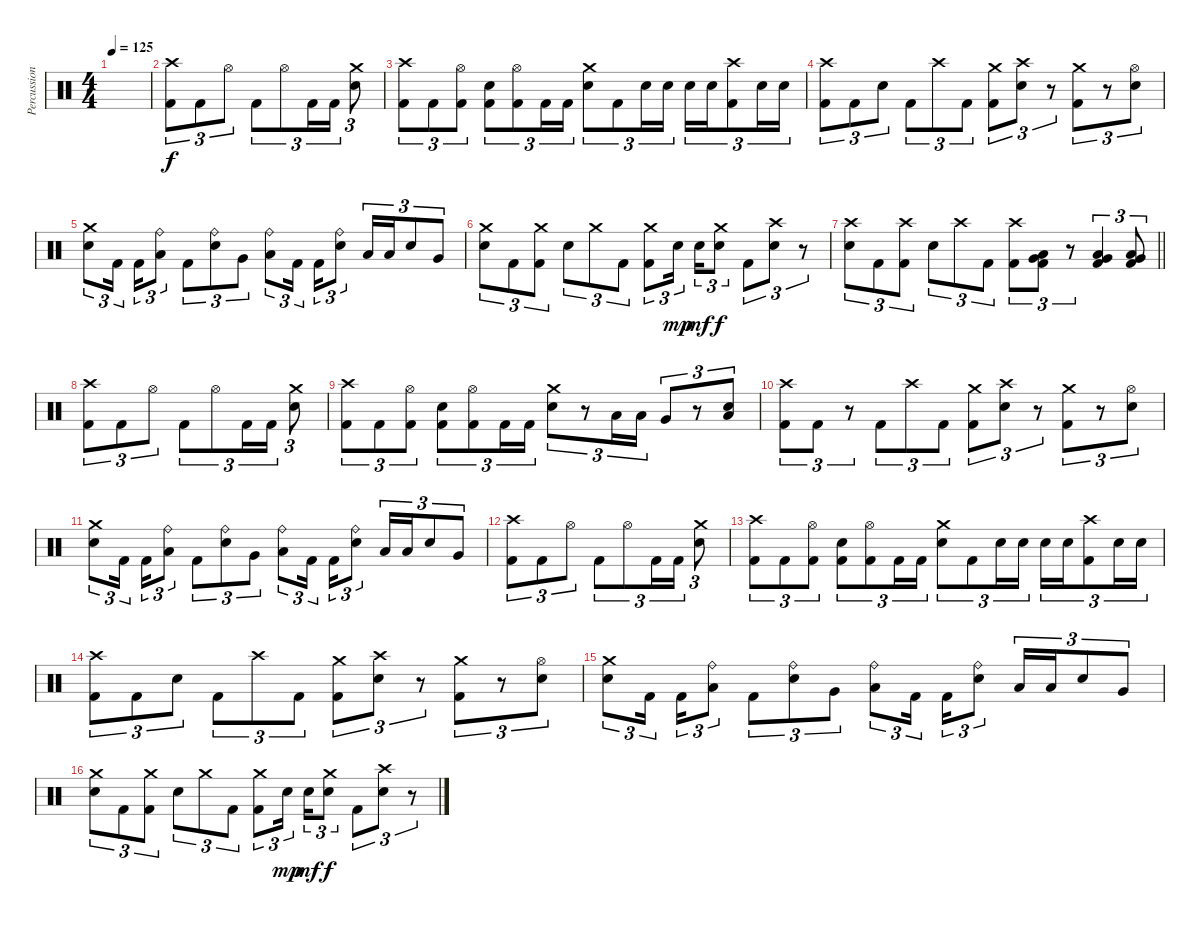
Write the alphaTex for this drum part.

\track ("Percussion" "Percussion") {instrument percussion}
\staff {score}
\articulation defaults
\ts (4 4)
\tempo 125
\clef neutral
\ks c
|
("Crash high (hit)" "Kick (hit) 2").8{tu (3 2)} "Kick (hit) 2".8{tu (3 2)} "Hi-Hat (open)".8{tu (3 2)} "Kick (hit) 2".8{tu (3 2)} "Hi-Hat (open)".8{tu (3 2)} "Kick (hit) 2".16{tu (3 2)} "Kick (hit) 2".16{tu (3 2)} ("Crash medium (hit)" "Electric Snare (hit)").8{tu (3 2)} |
("Crash high (hit)" "Kick (hit) 2").8{tu (3 2)} "Kick (hit) 2".8{tu (3 2)} ("Hi-Hat (open)" "Kick (hit) 2").8{tu (3 2)} ("Electric Snare (hit)" "Kick (hit) 2").8{tu (3 2)} ("Hi-Hat (open)" "Kick (hit) 2").8{tu (3 2)} "Kick (hit) 2".16{tu (3 2)} "Kick (hit) 2".16{tu (3 2)} ("Crash medium (hit)" "Electric Snare (hit)").8{tu (3 2)} "Kick (hit) 2".8{tu (3 2)} "Electric Snare (hit)".16{tu (3 2)} "Electric Snare (hit)".16{tu (3 2)} "Electric Snare (hit)".16{tu (3 2)} "Electric Snare (hit)".16{tu (3 2)} ("Crash high (hit)" "Kick (hit) 2").8{tu (3 2)} "Electric Snare (hit)".16{tu (3 2)} "Electric Snare (hit)".16{tu (3 2)} |
("Crash high (hit)" "Kick (hit) 2").8{tu (3 2)} "Kick (hit) 2".8{tu (3 2)} "Electric Snare (hit)".8{tu (3 2)} "Kick (hit) 2".8{tu (3 2)} "Crash high (hit)".8{tu (3 2)} "Kick (hit) 2".8{tu (3 2)} ("Crash medium (hit)" "Kick (hit) 2").8{tu (3 2)} ("Crash high (hit)" "Electric Snare (hit)").8{tu (3 2)} r.8{tu (3 2)} ("Crash medium (hit)" "Kick (hit) 2").8{tu (3 2)} r.8{tu (3 2)} ("Hi-Hat (open)" "Electric Snare (hit)").8{tu (3 2)} |
("Crash medium (hit)" "Electric Snare (hit)").8{tu (3 2)} "Kick (hit) 2".16{tu (3 2) beam splitsecondary} "Kick (hit) 2".16{tu (3 2)} ("Ride (bell)" "Low Tom (hit)").8{tu (3 2)} "Kick (hit) 2".8{tu (3 2)} ("Ride (bell)" "Electric Snare (hit)").8{tu (3 2)} "Very Low Tom (hit)".8{tu (3 2)} ("Ride (bell)" "Low Floor Tom (hit)").8{tu (3 2)} "Kick (hit) 2".16{tu (3 2) beam splitsecondary} "Kick (hit) 2".16{tu (3 2)} ("Ride (bell)" "Electric Snare (hit)").8{tu (3 2)} "Low Floor Tom (hit)".16{tu (3 2)} "Low Floor Tom (hit)".16{tu (3 2)} "Electric Snare (hit)".8{tu (3 2)} "Very Low Tom (hit)".8{tu (3 2)} |
("Crash medium (hit)" "Electric Snare (hit)").8{tu (3 2)} "Kick (hit) 2".8{tu (3 2)} ("Crash medium (hit)" "Kick (hit) 2").8{tu (3 2)} "Electric Snare (hit)".8{tu (3 2)} "Crash medium (hit)".8{tu (3 2)} "Kick (hit) 2".8{tu (3 2)} ("Crash medium (hit)" "Kick (hit) 2").8{tu (3 2)} "Electric Snare (hit)".16{tu (3 2) dy mp beam splitsecondary} "Electric Snare (hit)".16{tu (3 2) dy mf} ("Crash medium (hit)" "Electric Snare (hit)").8{tu (3 2) dy f} "Kick (hit) 2".8{tu (3 2)} ("Crash high (hit)" "Electric Snare (hit)").8{tu (3 2)} r.8{tu (3 2)} |
\barLineRight lightlight
("Crash high (hit)" "Electric Snare (hit)").8{tu (3 2)} "Kick (hit) 2".8{tu (3 2)} ("Crash high (hit)" "Kick (hit) 2").8{tu (3 2)} "Electric Snare (hit)".8{tu (3 2)} "Crash high (hit)".8{tu (3 2)} "Kick (hit) 2".8{tu (3 2)} ("Crash high (hit)" "Kick (hit) 2").8{tu (3 2)} ("Very Low Tom (hit)" "Low Floor Tom (hit)" "Kick (hit) 2").8{tu (3 2)} r.8{tu (3 2)} ("Very Low Tom (hit)" "Low Floor Tom (hit)" "Kick (hit) 2").4{tu (3 2)} ("Very Low Tom (hit)" "Low Floor Tom (hit)" "Kick (hit) 2").8{tu (3 2)} |
("Crash high (hit)" "Kick (hit) 2").8{tu (3 2)} "Kick (hit) 2".8{tu (3 2)} "Hi-Hat (open)".8{tu (3 2)} "Kick (hit) 2".8{tu (3 2)} "Hi-Hat (open)".8{tu (3 2)} "Kick (hit) 2".16{tu (3 2)} "Kick (hit) 2".16{tu (3 2)} ("Crash medium (hit)" "Electric Snare (hit)").8{tu (3 2)} |
("Crash high (hit)" "Kick (hit) 2").8{tu (3 2)} "Kick (hit) 2".8{tu (3 2)} ("Hi-Hat (open)" "Kick (hit) 2").8{tu (3 2)} ("Electric Snare (hit)" "Kick (hit) 2").8{tu (3 2)} ("Hi-Hat (open)" "Kick (hit) 2").8{tu (3 2)} "Kick (hit) 2".16{tu (3 2)} "Kick (hit) 2".16{tu (3 2)} ("Crash medium (hit)" "Electric Snare (hit)").8{tu (3 2)} r.8{tu (3 2)} "Low Tom (hit)".16{tu (3 2)} "Low Tom (hit)".16{tu (3 2)} "Very Low Tom (hit)".8{tu (3 2)} r.8{tu (3 2)} ("Electric Snare (hit)" "Low Floor Tom (hit)").8{tu (3 2)} |
("Crash high (hit)" "Kick (hit) 2").8{tu (3 2)} "Kick (hit) 2".8{tu (3 2)} r.8{tu (3 2)} "Kick (hit) 2".8{tu (3 2)} "Crash high (hit)".8{tu (3 2)} "Kick (hit) 2".8{tu (3 2)} ("Crash medium (hit)" "Kick (hit) 2").8{tu (3 2)} ("Crash high (hit)" "Electric Snare (hit)").8{tu (3 2)} r.8{tu (3 2)} ("Crash medium (hit)" "Kick (hit) 2").8{tu (3 2)} r.8{tu (3 2)} ("Hi-Hat (open)" "Electric Snare (hit)").8{tu (3 2)} |
("Crash medium (hit)" "Electric Snare (hit)").8{tu (3 2)} "Kick (hit) 2".16{tu (3 2) beam splitsecondary} "Kick (hit) 2".16{tu (3 2)} ("Ride (bell)" "Low Tom (hit)").8{tu (3 2)} "Kick (hit) 2".8{tu (3 2)} ("Ride (bell)" "Electric Snare (hit)").8{tu (3 2)} "Very Low Tom (hit)".8{tu (3 2)} ("Ride (bell)" "Low Floor Tom (hit)").8{tu (3 2)} "Kick (hit) 2".16{tu (3 2) beam splitsecondary} "Kick (hit) 2".16{tu (3 2)} ("Ride (bell)" "Electric Snare (hit)").8{tu (3 2)} "Low Floor Tom (hit)".16{tu (3 2)} "Low Floor Tom (hit)".16{tu (3 2)} "Electric Snare (hit)".8{tu (3 2)} "Very Low Tom (hit)".8{tu (3 2)} |
("Crash high (hit)" "Kick (hit) 2").8{tu (3 2)} "Kick (hit) 2".8{tu (3 2)} "Hi-Hat (open)".8{tu (3 2)} "Kick (hit) 2".8{tu (3 2)} "Hi-Hat (open)".8{tu (3 2)} "Kick (hit) 2".16{tu (3 2)} "Kick (hit) 2".16{tu (3 2)} ("Crash medium (hit)" "Electric Snare (hit)").8{tu (3 2)} |
("Crash high (hit)" "Kick (hit) 2").8{tu (3 2)} "Kick (hit) 2".8{tu (3 2)} ("Hi-Hat (open)" "Kick (hit) 2").8{tu (3 2)} ("Electric Snare (hit)" "Kick (hit) 2").8{tu (3 2)} ("Hi-Hat (open)" "Kick (hit) 2").8{tu (3 2)} "Kick (hit) 2".16{tu (3 2)} "Kick (hit) 2".16{tu (3 2)} ("Crash medium (hit)" "Electric Snare (hit)").8{tu (3 2)} "Kick (hit) 2".8{tu (3 2)} "Electric Snare (hit)".16{tu (3 2)} "Electric Snare (hit)".16{tu (3 2)} "Electric Snare (hit)".16{tu (3 2)} "Electric Snare (hit)".16{tu (3 2)} ("Crash high (hit)" "Kick (hit) 2").8{tu (3 2)} "Electric Snare (hit)".16{tu (3 2)} "Electric Snare (hit)".16{tu (3 2)} |
("Crash high (hit)" "Kick (hit) 2").8{tu (3 2)} "Kick (hit) 2".8{tu (3 2)} "Electric Snare (hit)".8{tu (3 2)} "Kick (hit) 2".8{tu (3 2)} "Crash high (hit)".8{tu (3 2)} "Kick (hit) 2".8{tu (3 2)} ("Crash medium (hit)" "Kick (hit) 2").8{tu (3 2)} ("Crash high (hit)" "Electric Snare (hit)").8{tu (3 2)} r.8{tu (3 2)} ("Crash medium (hit)" "Kick (hit) 2").8{tu (3 2)} r.8{tu (3 2)} ("Hi-Hat (open)" "Electric Snare (hit)").8{tu (3 2)} |
("Crash medium (hit)" "Electric Snare (hit)").8{tu (3 2)} "Kick (hit) 2".16{tu (3 2) beam splitsecondary} "Kick (hit) 2".16{tu (3 2)} ("Ride (bell)" "Low Tom (hit)").8{tu (3 2)} "Kick (hit) 2".8{tu (3 2)} ("Ride (bell)" "Electric Snare (hit)").8{tu (3 2)} "Very Low Tom (hit)".8{tu (3 2)} ("Ride (bell)" "Low Floor Tom (hit)").8{tu (3 2)} "Kick (hit) 2".16{tu (3 2) beam splitsecondary} "Kick (hit) 2".16{tu (3 2)} ("Ride (bell)" "Electric Snare (hit)").8{tu (3 2)} "Low Floor Tom (hit)".16{tu (3 2)} "Low Floor Tom (hit)".16{tu (3 2)} "Electric Snare (hit)".8{tu (3 2)} "Very Low Tom (hit)".8{tu (3 2)} |
("Crash medium (hit)" "Electric Snare (hit)").8{tu (3 2)} "Kick (hit) 2".8{tu (3 2)} ("Crash medium (hit)" "Kick (hit) 2").8{tu (3 2)} "Electric Snare (hit)".8{tu (3 2)} "Crash medium (hit)".8{tu (3 2)} "Kick (hit) 2".8{tu (3 2)} ("Crash medium (hit)" "Kick (hit) 2").8{tu (3 2)} "Electric Snare (hit)".16{tu (3 2) dy mp beam splitsecondary} "Electric Snare (hit)".16{tu (3 2) dy mf} ("Crash medium (hit)" "Electric Snare (hit)").8{tu (3 2) dy f} "Kick (hit) 2".8{tu (3 2)} ("Crash high (hit)" "Electric Snare (hit)").8{tu (3 2)} r.8{tu (3 2)}
